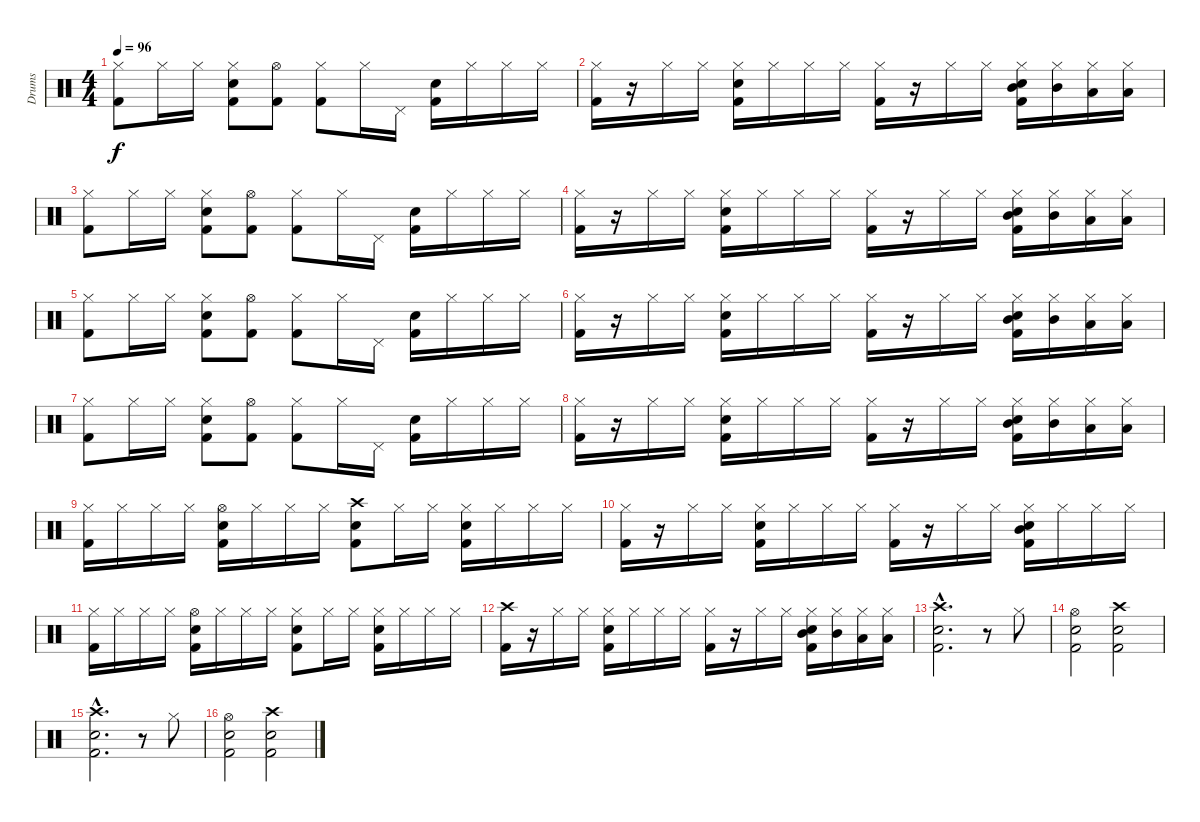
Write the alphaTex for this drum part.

\track ("Drums" "Drums") {instrument percussion}
\staff {score}
\articulation defaults
\ts (4 4)
\tempo 96
\clef neutral
\ks c
("Hi-Hat (closed)" "Kick (hit) 2").8{dy f} "Hi-Hat (closed)".16 "Hi-Hat (closed)".16 ("Hi-Hat (closed)" "Snare (hit) 2" "Kick (hit) 2").8 ("Hi-Hat (open)" "Kick (hit) 2").8 ("Hi-Hat (closed)" "Kick (hit) 2").8 "Hi-Hat (closed)".16 "Pedal Hi-Hat (hit)".16 ("Snare (hit) 2" "Kick (hit) 2").16 "Hi-Hat (closed)".16 "Hi-Hat (closed)".16 "Hi-Hat (closed)".16 |
("Hi-Hat (closed)" "Kick (hit) 2").16 r.16 "Hi-Hat (closed)".16 "Hi-Hat (closed)".16 ("Hi-Hat (closed)" "Snare (hit) 2" "Kick (hit) 2").16 "Hi-Hat (closed)".16 "Hi-Hat (closed)".16 "Hi-Hat (closed)".16 ("Hi-Hat (closed)" "Kick (hit) 2").16 r.16 "Hi-Hat (closed)".16 "Hi-Hat (closed)".16 ("Hi-Hat (closed)" "Snare (hit) 2" "Mid Tom (hit)" "Kick (hit) 2").16 ("Hi-Hat (closed)" "Mid Tom (hit)").16 ("Hi-Hat (closed)" "Low Tom (hit)").16 ("Hi-Hat (closed)" "Low Tom (hit)").16 |
("Hi-Hat (closed)" "Kick (hit) 2").8 "Hi-Hat (closed)".16 "Hi-Hat (closed)".16 ("Hi-Hat (closed)" "Snare (hit) 2" "Kick (hit) 2").8 ("Hi-Hat (open)" "Kick (hit) 2").8 ("Hi-Hat (closed)" "Kick (hit) 2").8 "Hi-Hat (closed)".16 "Pedal Hi-Hat (hit)".16 ("Snare (hit) 2" "Kick (hit) 2").16 "Hi-Hat (closed)".16 "Hi-Hat (closed)".16 "Hi-Hat (closed)".16 |
("Hi-Hat (closed)" "Kick (hit) 2").16 r.16 "Hi-Hat (closed)".16 "Hi-Hat (closed)".16 ("Hi-Hat (closed)" "Snare (hit) 2" "Kick (hit) 2").16 "Hi-Hat (closed)".16 "Hi-Hat (closed)".16 "Hi-Hat (closed)".16 ("Hi-Hat (closed)" "Kick (hit) 2").16 r.16 "Hi-Hat (closed)".16 "Hi-Hat (closed)".16 ("Hi-Hat (closed)" "Snare (hit) 2" "Mid Tom (hit)" "Kick (hit) 2").16 ("Hi-Hat (closed)" "Mid Tom (hit)").16 ("Hi-Hat (closed)" "Low Tom (hit)").16 ("Hi-Hat (closed)" "Low Tom (hit)").16 |
("Hi-Hat (closed)" "Kick (hit) 2").8 "Hi-Hat (closed)".16 "Hi-Hat (closed)".16 ("Hi-Hat (closed)" "Snare (hit) 2" "Kick (hit) 2").8 ("Hi-Hat (open)" "Kick (hit) 2").8 ("Hi-Hat (closed)" "Kick (hit) 2").8 "Hi-Hat (closed)".16 "Pedal Hi-Hat (hit)".16 ("Snare (hit) 2" "Kick (hit) 2").16 "Hi-Hat (closed)".16 "Hi-Hat (closed)".16 "Hi-Hat (closed)".16 |
("Hi-Hat (closed)" "Kick (hit) 2").16 r.16 "Hi-Hat (closed)".16 "Hi-Hat (closed)".16 ("Hi-Hat (closed)" "Snare (hit) 2" "Kick (hit) 2").16 "Hi-Hat (closed)".16 "Hi-Hat (closed)".16 "Hi-Hat (closed)".16 ("Hi-Hat (closed)" "Kick (hit) 2").16 r.16 "Hi-Hat (closed)".16 "Hi-Hat (closed)".16 ("Hi-Hat (closed)" "Snare (hit) 2" "Mid Tom (hit)" "Kick (hit) 2").16 ("Hi-Hat (closed)" "Mid Tom (hit)").16 ("Hi-Hat (closed)" "Low Tom (hit)").16 ("Hi-Hat (closed)" "Low Tom (hit)").16 |
("Hi-Hat (closed)" "Kick (hit) 2").8 "Hi-Hat (closed)".16 "Hi-Hat (closed)".16 ("Hi-Hat (closed)" "Snare (hit) 2" "Kick (hit) 2").8 ("Hi-Hat (open)" "Kick (hit) 2").8 ("Hi-Hat (closed)" "Kick (hit) 2").8 "Hi-Hat (closed)".16 "Pedal Hi-Hat (hit)".16 ("Snare (hit) 2" "Kick (hit) 2").16 "Hi-Hat (closed)".16 "Hi-Hat (closed)".16 "Hi-Hat (closed)".16 |
("Hi-Hat (closed)" "Kick (hit) 2").16 r.16 "Hi-Hat (closed)".16 "Hi-Hat (closed)".16 ("Hi-Hat (closed)" "Snare (hit) 2" "Kick (hit) 2").16 "Hi-Hat (closed)".16 "Hi-Hat (closed)".16 "Hi-Hat (closed)".16 ("Hi-Hat (closed)" "Kick (hit) 2").16 r.16 "Hi-Hat (closed)".16 "Hi-Hat (closed)".16 ("Hi-Hat (closed)" "Snare (hit) 2" "Mid Tom (hit)" "Kick (hit) 2").16 ("Hi-Hat (closed)" "Mid Tom (hit)").16 ("Hi-Hat (closed)" "Low Tom (hit)").16 ("Hi-Hat (closed)" "Low Tom (hit)").16 |
("Hi-Hat (closed)" "Kick (hit) 2").16 "Hi-Hat (closed)".16 "Hi-Hat (closed)".16 "Hi-Hat (closed)".16 ("Hi-Hat (open)" "Snare (hit) 2" "Kick (hit) 2").16 "Hi-Hat (closed)".16 "Hi-Hat (closed)".16 "Hi-Hat (closed)".16 ("Crash high (hit)" "Snare (hit) 2" "Kick (hit) 2").8 "Hi-Hat (closed)".16 "Hi-Hat (closed)".16 ("Hi-Hat (closed)" "Snare (hit) 2" "Kick (hit) 2").16 "Hi-Hat (closed)".16 "Hi-Hat (closed)".16 "Hi-Hat (closed)".16 |
("Hi-Hat (closed)" "Kick (hit) 2").16 r.16 "Hi-Hat (closed)".16 "Hi-Hat (closed)".16 ("Hi-Hat (closed)" "Snare (hit) 2" "Kick (hit) 2").16 "Hi-Hat (closed)".16 "Hi-Hat (closed)".16 "Hi-Hat (closed)".16 ("Hi-Hat (closed)" "Kick (hit) 2").16 r.16 "Hi-Hat (closed)".16 "Hi-Hat (closed)".16 ("Hi-Hat (closed)" "Snare (hit) 2" "Mid Tom (hit)" "Kick (hit) 2").16 "Hi-Hat (closed)".16 "Hi-Hat (closed)".16 "Hi-Hat (closed)".16 |
("Hi-Hat (closed)" "Kick (hit) 2").16 "Hi-Hat (closed)".16 "Hi-Hat (closed)".16 "Hi-Hat (closed)".16 ("Hi-Hat (open)" "Snare (hit) 2" "Kick (hit) 2").16 "Hi-Hat (closed)".16 "Hi-Hat (closed)".16 "Hi-Hat (closed)".16 ("Hi-Hat (closed)" "Snare (hit) 2" "Kick (hit) 2").8 "Hi-Hat (closed)".16 "Hi-Hat (closed)".16 ("Hi-Hat (closed)" "Snare (hit) 2" "Kick (hit) 2").16 "Hi-Hat (closed)".16 "Hi-Hat (closed)".16 "Hi-Hat (closed)".16 |
("Crash high (hit)" "Kick (hit) 2").16 r.16 "Hi-Hat (closed)".16 "Hi-Hat (closed)".16 ("Hi-Hat (closed)" "Snare (hit) 2" "Kick (hit) 2").16 "Hi-Hat (closed)".16 "Hi-Hat (closed)".16 "Hi-Hat (closed)".16 ("Hi-Hat (closed)" "Kick (hit) 2").16 r.16 "Hi-Hat (closed)".16 "Hi-Hat (closed)".16 ("Hi-Hat (closed)" "Snare (hit) 2" "Mid Tom (hit)" "Kick (hit) 2").16 ("Hi-Hat (closed)" "Mid Tom (hit)").16 ("Hi-Hat (closed)" "Low Tom (hit)").16 ("Hi-Hat (closed)" "Low Tom (hit)").16 |
("Crash high (hit)"{hac} "Snare (hit) 2"{hac} "Kick (hit) 2"{hac}).2{d} r.8 "Hi-Hat (closed)".8 |
("Hi-Hat (open)" "Snare (hit) 2" "Kick (hit) 2").2 ("Crash high (hit)" "Snare (hit) 2" "Kick (hit) 2").2 |
("Crash high (hit)"{hac} "Snare (hit) 2"{hac} "Kick (hit) 2"{hac}).2{d} r.8 "Hi-Hat (closed)".8 |
("Hi-Hat (open)" "Snare (hit) 2" "Kick (hit) 2").2 ("Crash high (hit)" "Snare (hit) 2" "Kick (hit) 2").2
